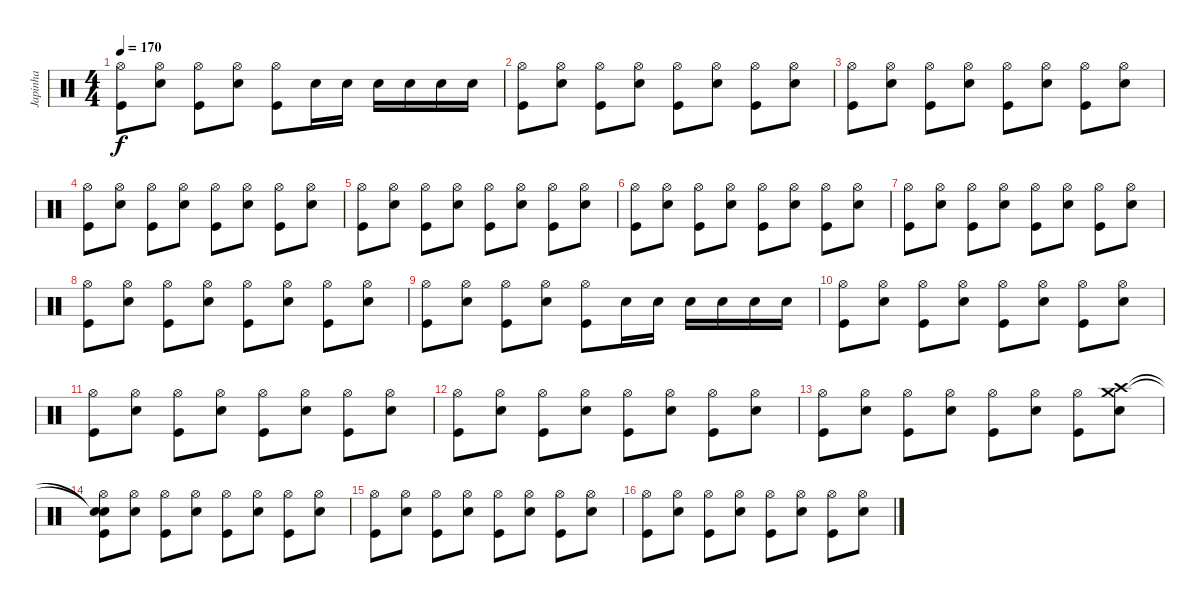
\track ("Japinha" "Japinha") {instrument percussion}
\staff {score}
\articulation defaults
\ts (4 4)
\tempo 170
\clef neutral
\ks c
("Hi-Hat (open)" "Kick (hit)").8{dy f} ("Hi-Hat (open)" "Electric Snare (hit)").8 ("Hi-Hat (open)" "Kick (hit)").8 ("Hi-Hat (open)" "Electric Snare (hit)").8 ("Hi-Hat (open)" "Kick (hit)").8 "Electric Snare (hit)".16 "Electric Snare (hit)".16 "Electric Snare (hit)".16 "Electric Snare (hit)".16 "Electric Snare (hit)".16 "Electric Snare (hit)".16 |
("Hi-Hat (open)" "Kick (hit)").8 ("Hi-Hat (open)" "Electric Snare (hit)").8 ("Hi-Hat (open)" "Kick (hit)").8 ("Hi-Hat (open)" "Electric Snare (hit)").8 ("Hi-Hat (open)" "Kick (hit)").8 ("Hi-Hat (open)" "Electric Snare (hit)").8 ("Hi-Hat (open)" "Kick (hit)").8 ("Hi-Hat (open)" "Electric Snare (hit)").8 |
("Hi-Hat (open)" "Kick (hit)").8 ("Hi-Hat (open)" "Electric Snare (hit)").8 ("Hi-Hat (open)" "Kick (hit)").8 ("Hi-Hat (open)" "Electric Snare (hit)").8 ("Hi-Hat (open)" "Kick (hit)").8 ("Hi-Hat (open)" "Electric Snare (hit)").8 ("Hi-Hat (open)" "Kick (hit)").8 ("Hi-Hat (open)" "Electric Snare (hit)").8 |
("Hi-Hat (open)" "Kick (hit)").8 ("Hi-Hat (open)" "Electric Snare (hit)").8 ("Hi-Hat (open)" "Kick (hit)").8 ("Hi-Hat (open)" "Electric Snare (hit)").8 ("Hi-Hat (open)" "Kick (hit)").8 ("Hi-Hat (open)" "Electric Snare (hit)").8 ("Hi-Hat (open)" "Kick (hit)").8 ("Hi-Hat (open)" "Electric Snare (hit)").8 |
("Hi-Hat (open)" "Kick (hit)").8 ("Hi-Hat (open)" "Electric Snare (hit)").8 ("Hi-Hat (open)" "Kick (hit)").8 ("Hi-Hat (open)" "Electric Snare (hit)").8 ("Hi-Hat (open)" "Kick (hit)").8 ("Hi-Hat (open)" "Electric Snare (hit)").8 ("Hi-Hat (open)" "Kick (hit)").8 ("Hi-Hat (open)" "Electric Snare (hit)").8 |
("Hi-Hat (open)" "Kick (hit)").8 ("Hi-Hat (open)" "Electric Snare (hit)").8 ("Hi-Hat (open)" "Kick (hit)").8 ("Hi-Hat (open)" "Electric Snare (hit)").8 ("Hi-Hat (open)" "Kick (hit)").8 ("Hi-Hat (open)" "Electric Snare (hit)").8 ("Hi-Hat (open)" "Kick (hit)").8 ("Hi-Hat (open)" "Electric Snare (hit)").8 |
("Hi-Hat (open)" "Kick (hit)").8 ("Hi-Hat (open)" "Electric Snare (hit)").8 ("Hi-Hat (open)" "Kick (hit)").8 ("Hi-Hat (open)" "Electric Snare (hit)").8 ("Hi-Hat (open)" "Kick (hit)").8 ("Hi-Hat (open)" "Electric Snare (hit)").8 ("Hi-Hat (open)" "Kick (hit)").8 ("Hi-Hat (open)" "Electric Snare (hit)").8 |
("Hi-Hat (open)" "Kick (hit)").8 ("Hi-Hat (open)" "Electric Snare (hit)").8 ("Hi-Hat (open)" "Kick (hit)").8 ("Hi-Hat (open)" "Electric Snare (hit)").8 ("Hi-Hat (open)" "Kick (hit)").8 ("Hi-Hat (open)" "Electric Snare (hit)").8 ("Hi-Hat (open)" "Kick (hit)").8 ("Hi-Hat (open)" "Electric Snare (hit)").8 |
("Hi-Hat (open)" "Kick (hit)").8 ("Hi-Hat (open)" "Electric Snare (hit)").8 ("Hi-Hat (open)" "Kick (hit)").8 ("Hi-Hat (open)" "Electric Snare (hit)").8 ("Hi-Hat (open)" "Kick (hit)").8 "Electric Snare (hit)".16 "Electric Snare (hit)".16 "Electric Snare (hit)".16 "Electric Snare (hit)".16 "Electric Snare (hit)".16 "Electric Snare (hit)".16 |
("Hi-Hat (open)" "Kick (hit)").8 ("Hi-Hat (open)" "Electric Snare (hit)").8 ("Hi-Hat (open)" "Kick (hit)").8 ("Hi-Hat (open)" "Electric Snare (hit)").8 ("Hi-Hat (open)" "Kick (hit)").8 ("Hi-Hat (open)" "Electric Snare (hit)").8 ("Hi-Hat (open)" "Kick (hit)").8 ("Hi-Hat (open)" "Electric Snare (hit)").8 |
("Hi-Hat (open)" "Kick (hit)").8 ("Hi-Hat (open)" "Electric Snare (hit)").8 ("Hi-Hat (open)" "Kick (hit)").8 ("Hi-Hat (open)" "Electric Snare (hit)").8 ("Hi-Hat (open)" "Kick (hit)").8 ("Hi-Hat (open)" "Electric Snare (hit)").8 ("Hi-Hat (open)" "Kick (hit)").8 ("Hi-Hat (open)" "Electric Snare (hit)").8 |
("Hi-Hat (open)" "Kick (hit)").8 ("Hi-Hat (open)" "Electric Snare (hit)").8 ("Hi-Hat (open)" "Kick (hit)").8 ("Hi-Hat (open)" "Electric Snare (hit)").8 ("Hi-Hat (open)" "Kick (hit)").8 ("Hi-Hat (open)" "Electric Snare (hit)").8 ("Hi-Hat (open)" "Kick (hit)").8 ("Hi-Hat (open)" "Electric Snare (hit)").8 |
("Hi-Hat (open)" "Kick (hit)").8 ("Hi-Hat (open)" "Electric Snare (hit)").8 ("Hi-Hat (open)" "Kick (hit)").8 ("Hi-Hat (open)" "Electric Snare (hit)").8 ("Hi-Hat (open)" "Kick (hit)").8 ("Hi-Hat (open)" "Electric Snare (hit)").8 ("Hi-Hat (open)" "Kick (hit)").8 ("Crash high (hit)" "Crash medium (hit)" "Electric Snare (hit)").8 |
("Snare (hit)"{t} "Snare (hit)"{t} "Hi-Hat (open)" "Kick (hit)").8 ("Hi-Hat (open)" "Electric Snare (hit)").8 ("Hi-Hat (open)" "Kick (hit)").8 ("Hi-Hat (open)" "Electric Snare (hit)").8 ("Hi-Hat (open)" "Kick (hit)").8 ("Hi-Hat (open)" "Electric Snare (hit)").8 ("Hi-Hat (open)" "Kick (hit)").8 ("Hi-Hat (open)" "Electric Snare (hit)").8 |
("Hi-Hat (open)" "Kick (hit)").8 ("Hi-Hat (open)" "Electric Snare (hit)").8 ("Hi-Hat (open)" "Kick (hit)").8 ("Hi-Hat (open)" "Electric Snare (hit)").8 ("Hi-Hat (open)" "Kick (hit)").8 ("Hi-Hat (open)" "Electric Snare (hit)").8 ("Hi-Hat (open)" "Kick (hit)").8 ("Hi-Hat (open)" "Electric Snare (hit)").8 |
("Hi-Hat (open)" "Kick (hit)").8 ("Hi-Hat (open)" "Electric Snare (hit)").8 ("Hi-Hat (open)" "Kick (hit)").8 ("Hi-Hat (open)" "Electric Snare (hit)").8 ("Hi-Hat (open)" "Kick (hit)").8 ("Hi-Hat (open)" "Electric Snare (hit)").8 ("Hi-Hat (open)" "Kick (hit)").8 ("Hi-Hat (open)" "Electric Snare (hit)").8
